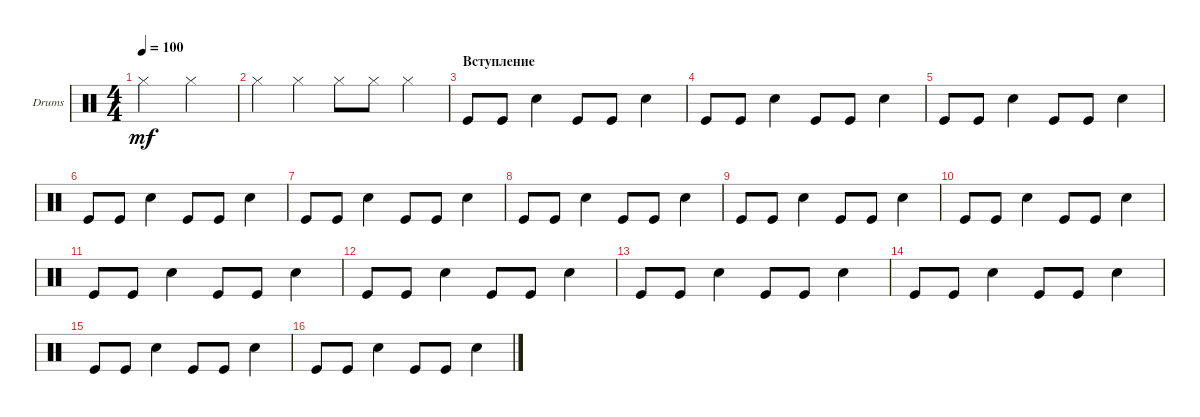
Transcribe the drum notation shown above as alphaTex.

\defaultSystemsLayout 4
\bracketExtendMode groupsimilarinstruments
\firstSystemTrackNameOrientation horizontal
\otherSystemsTrackNameOrientation horizontal
\track ("Е. Кулаков" "Drums") {instrument percussion}
\staff {score}
\articulation defaults
\ts (4 4)
\tempo 100
\clef neutral
\ks c "Hi-Hat (closed)".2{dy mf} "Hi-Hat (closed)".2
|
"Hi-Hat (closed)".4 "Hi-Hat (closed)".4 "Hi-Hat (closed)".8 "Hi-Hat (closed)".8 "Hi-Hat (closed)".4 |
\section ("" "Вступление")
"Kick (hit)".8 "Kick (hit)".8 "Snare (hit) 2".4 "Kick (hit)".8 "Kick (hit)".8 "Snare (hit) 2".4 |
"Kick (hit)".8 "Kick (hit)".8 "Snare (hit) 2".4 "Kick (hit)".8 "Kick (hit)".8 "Snare (hit) 2".4 |
"Kick (hit)".8 "Kick (hit)".8 "Snare (hit) 2".4 "Kick (hit)".8 "Kick (hit)".8 "Snare (hit) 2".4 |
"Kick (hit)".8 "Kick (hit)".8 "Snare (hit) 2".4 "Kick (hit)".8 "Kick (hit)".8 "Snare (hit) 2".4 |
"Kick (hit)".8 "Kick (hit)".8 "Snare (hit) 2".4 "Kick (hit)".8 "Kick (hit)".8 "Snare (hit) 2".4 |
"Kick (hit)".8 "Kick (hit)".8 "Snare (hit) 2".4 "Kick (hit)".8 "Kick (hit)".8 "Snare (hit) 2".4 |
"Kick (hit)".8 "Kick (hit)".8 "Snare (hit) 2".4 "Kick (hit)".8 "Kick (hit)".8 "Snare (hit) 2".4 |
"Kick (hit)".8 "Kick (hit)".8 "Snare (hit) 2".4 "Kick (hit)".8 "Kick (hit)".8 "Snare (hit) 2".4 |
"Kick (hit)".8 "Kick (hit)".8 "Snare (hit) 2".4 "Kick (hit)".8 "Kick (hit)".8 "Snare (hit) 2".4 |
"Kick (hit)".8 "Kick (hit)".8 "Snare (hit) 2".4 "Kick (hit)".8 "Kick (hit)".8 "Snare (hit) 2".4 |
"Kick (hit)".8 "Kick (hit)".8 "Snare (hit) 2".4 "Kick (hit)".8 "Kick (hit)".8 "Snare (hit) 2".4 |
"Kick (hit)".8 "Kick (hit)".8 "Snare (hit) 2".4 "Kick (hit)".8 "Kick (hit)".8 "Snare (hit) 2".4 |
"Kick (hit)".8 "Kick (hit)".8 "Snare (hit) 2".4 "Kick (hit)".8 "Kick (hit)".8 "Snare (hit) 2".4 |
"Kick (hit)".8 "Kick (hit)".8 "Snare (hit) 2".4 "Kick (hit)".8 "Kick (hit)".8 "Snare (hit) 2".4
